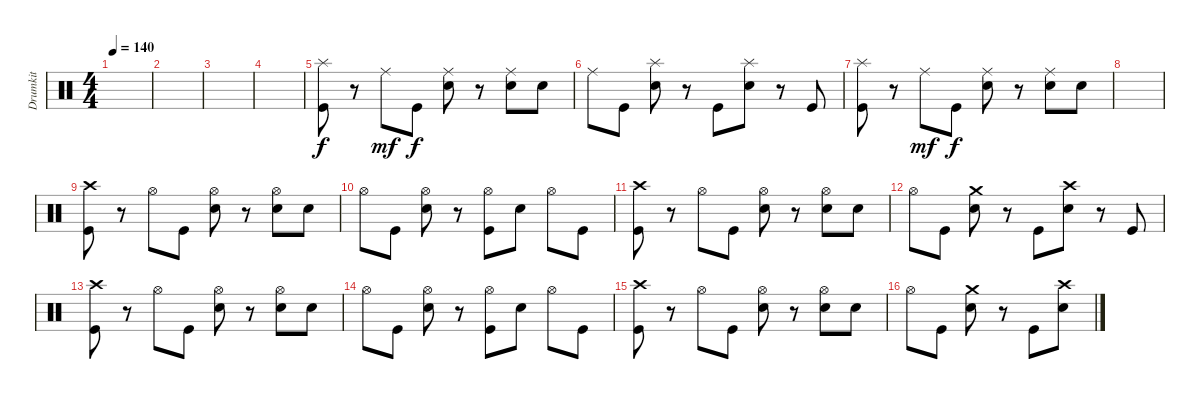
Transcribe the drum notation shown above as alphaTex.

\track ("Drumkit" "Drumkit") {instrument percussion}
\staff {score}
\articulation defaults
\ts (4 4)
\tempo 140
\clef neutral
\ks c
|
|
|
|
("Kick (hit)" "Splash (hit)").8 r.8 "Ride (middle)".8{dy mf} "Kick (hit)".8{dy f} ("Snare (hit) 2" "Ride (middle)").8 r.8 ("Snare (hit) 2" "Ride (middle)").8 "Snare (hit) 2".8 |
"Ride (middle)".8 "Kick (hit)".8 ("Snare (hit) 2" "Splash (hit)").8 r.8 "Kick (hit)".8 ("Snare (hit) 2" "Splash (hit)").8 r.8 "Kick (hit)".8 |
("Kick (hit)" "Splash (hit)").8 r.8 "Ride (middle)".8{dy mf} "Kick (hit)".8{dy f} ("Snare (hit) 2" "Ride (middle)").8 r.8 ("Snare (hit) 2" "Ride (middle)").8 "Snare (hit) 2".8 |
|
("Kick (hit)" "Crash high (hit)").8 r.8 "Hi-Hat (open)".8 "Kick (hit)".8 ("Snare (hit) 2" "Hi-Hat (open)").8 r.8 ("Snare (hit) 2" "Hi-Hat (open)").8 "Snare (hit) 2".8 |
"Hi-Hat (open)".8 "Kick (hit)".8 ("Hi-Hat (open)" "Snare (hit) 2").8 r.8 ("Hi-Hat (open)" "Kick (hit)").8 "Snare (hit) 2".8 "Hi-Hat (open)".8 "Kick (hit)".8 |
("Kick (hit)" "Crash high (hit)").8 r.8 "Hi-Hat (open)".8 "Kick (hit)".8 ("Snare (hit) 2" "Hi-Hat (open)").8 r.8 ("Snare (hit) 2" "Hi-Hat (open)").8 "Snare (hit) 2".8 |
"Hi-Hat (open)".8 "Kick (hit)".8 ("Crash medium (hit)" "Snare (hit) 2").8 r.8 "Kick (hit)".8 ("Crash high (hit)" "Snare (hit) 2").8 r.8 "Kick (hit)".8 |
("Kick (hit)" "Crash high (hit)").8 r.8 "Hi-Hat (open)".8 "Kick (hit)".8 ("Snare (hit) 2" "Hi-Hat (open)").8 r.8 ("Snare (hit) 2" "Hi-Hat (open)").8 "Snare (hit) 2".8 |
"Hi-Hat (open)".8 "Kick (hit)".8 ("Hi-Hat (open)" "Snare (hit) 2").8 r.8 ("Hi-Hat (open)" "Kick (hit)").8 "Snare (hit) 2".8 "Hi-Hat (open)".8 "Kick (hit)".8 |
("Kick (hit)" "Crash high (hit)").8 r.8 "Hi-Hat (open)".8 "Kick (hit)".8 ("Snare (hit) 2" "Hi-Hat (open)").8 r.8 ("Snare (hit) 2" "Hi-Hat (open)").8 "Snare (hit) 2".8 |
"Hi-Hat (open)".8 "Kick (hit)".8 ("Crash medium (hit)" "Snare (hit) 2").8 r.8 "Kick (hit)".8 ("Crash high (hit)" "Snare (hit) 2").8
